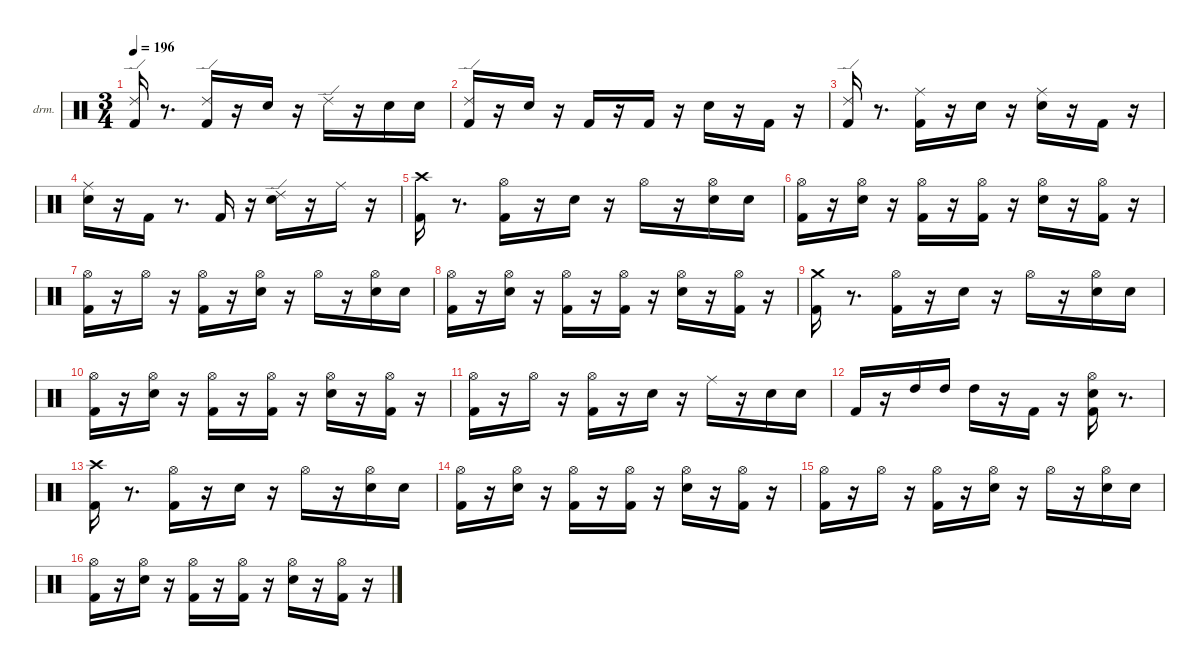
\hideDynamics
\bracketExtendMode nobrackets
\firstSystemTrackNameOrientation horizontal
\otherSystemsTrackNameOrientation horizontal
\track ("EZdrummer 3" "drm.") {instrument percussion}
\staff {score}
\articulation defaults
\ts (3 4)
\tempo 196
\clef neutral
\ks aminor
("Kick (hit) 2" "Ride (edge) 2").16{dy fff beam Up} r.8{d beam Up} ("Kick (hit) 2" "Ride (edge) 2").16{dy f beam Up} r.16{beam Up} "Snare (hit) 2".16{dy ff beam Down} r.16{beam Down} "Ride (edge) 2".16{dy f beam Down} r.16{beam Down} "Snare (hit) 2".16{beam Down} "Snare (hit) 2".16{dy mp beam Down} |
("Kick (hit) 2" "Ride (edge) 2").16{dy fff beam Up} r.16{beam Up} "Snare (hit) 2".16{dy ff beam Down} r.16{beam Down} "Kick (hit) 2".16{dy mf beam Up} r.16{beam Up} "Kick (hit) 2".16{dy fff beam Up} r.16{beam Up} "Snare (hit) 2".16{dy ff beam Down} r.16{beam Down} "Kick (hit) 2".16{dy mp beam Up} r.16{beam Up} |
("Kick (hit) 2" "Ride (edge) 2").16{dy fff beam Up} r.8{d beam Up} ("Kick (hit) 2" "Ride (middle)"{acc #}).16{dy f beam Down} r.16{beam Down} "Snare (hit) 2".16{dy ff beam Down} r.16{beam Down} ("Snare (hit) 2" "Ride (middle)"{acc #}).16{dy pp beam Down} r.16{beam Down} "Kick (hit) 2".16{dy ff beam Up} r.16{beam Up} |
("Snare (hit) 2" "Ride (middle)"{acc #}).16{beam Down} r.16{beam Down} "Kick (hit) 2".16{dy f beam Up} r.8{d beam Up} "Kick (hit) 2".16{dy ff beam Up} r.16{beam Up} ("Snare (hit) 2" "Ride (edge) 2").16{beam Down} r.16{beam Down} "Ride (middle)"{acc #}.16{dy ppp beam Down} r.16{beam Down} |
("Kick (hit) 2" "Crash high (hit)"{acc #}).16{dy fff beam Down} r.8{d beam Down} ("Kick (hit) 2" "Hi-Hat (open)"{acc #}).16{dy f beam Down} r.16{beam Down} "Snare (hit) 2".16{dy ff beam Down} r.16{beam Down} "Hi-Hat (open)"{acc #}.16{dy f beam Down} r.16{beam Down} ("Snare (hit) 2" "Hi-Hat (open)"{acc #}).16{beam Down} "Snare (hit) 2".16{dy mp beam Down} |
("Kick (hit) 2" "Hi-Hat (open)"{acc #}).16{dy fff beam Down} r.16{beam Down} ("Snare (hit) 2" "Hi-Hat (open)"{acc #}).16{dy ff beam Down} r.16{beam Down} ("Kick (hit) 2" "Hi-Hat (open)"{acc #}).16{dy mf beam Down} r.16{beam Down} ("Kick (hit) 2" "Hi-Hat (open)"{acc #}).16{dy fff beam Down} r.16{beam Down} ("Snare (hit) 2" "Hi-Hat (open)"{acc #}).16{dy ff beam Down} r.16{beam Down} ("Kick (hit) 2" "Hi-Hat (open)"{acc #}).16{dy mp beam Down} r.16{beam Down} |
("Kick (hit) 2" "Hi-Hat (open)"{acc #}).16{dy fff beam Down} r.16{beam Down} "Hi-Hat (open)"{acc #}.16{dy pp beam Down} r.16{beam Down} ("Kick (hit) 2" "Hi-Hat (open)"{acc #}).16{dy f beam Down} r.16{beam Down} ("Snare (hit) 2" "Hi-Hat (open)"{acc #}).16{dy ff beam Down} r.16{beam Down} "Hi-Hat (open)"{acc #}.16{dy f beam Down} r.16{beam Down} ("Snare (hit) 2" "Hi-Hat (open)"{acc #}).16{beam Down} "Snare (hit) 2".16{dy mp beam Down} |
("Kick (hit) 2" "Hi-Hat (open)"{acc #}).16{dy fff beam Down} r.16{beam Down} ("Snare (hit) 2" "Hi-Hat (open)"{acc #}).16{dy ff beam Down} r.16{beam Down} ("Kick (hit) 2" "Hi-Hat (open)"{acc #}).16{dy mf beam Down} r.16{beam Down} ("Kick (hit) 2" "Hi-Hat (open)"{acc #}).16{dy fff beam Down} r.16{beam Down} ("Snare (hit) 2" "Hi-Hat (open)"{acc #}).16{dy ff beam Down} r.16{beam Down} ("Kick (hit) 2" "Hi-Hat (open)"{acc #}).16{dy mp beam Down} r.16{beam Down} |
("Kick (hit) 2" "Crash medium (hit)").16{dy fff beam Down} r.8{d beam Down} ("Kick (hit) 2" "Hi-Hat (open)"{acc #}).16{dy f beam Down} r.16{beam Down} "Snare (hit) 2".16{dy ff beam Down} r.16{beam Down} "Hi-Hat (open)"{acc #}.16{dy f beam Down} r.16{beam Down} ("Snare (hit) 2" "Hi-Hat (open)"{acc #}).16{beam Down} "Snare (hit) 2".16{dy mp beam Down} |
("Kick (hit) 2" "Hi-Hat (open)"{acc #}).16{dy fff beam Down} r.16{beam Down} ("Snare (hit) 2" "Hi-Hat (open)"{acc #}).16{dy ff beam Down} r.16{beam Down} ("Kick (hit) 2" "Hi-Hat (open)"{acc #}).16{dy mf beam Down} r.16{beam Down} ("Kick (hit) 2" "Hi-Hat (open)"{acc #}).16{dy fff beam Down} r.16{beam Down} ("Snare (hit) 2" "Hi-Hat (open)"{acc #}).16{dy ff beam Down} r.16{beam Down} ("Kick (hit) 2" "Hi-Hat (open)"{acc #}).16{dy mp beam Down} r.16{beam Down} |
("Kick (hit) 2" "Hi-Hat (open)"{acc #}).16{dy fff beam Down} r.16{beam Down} "Hi-Hat (open)"{acc #}.16{dy pp beam Down} r.16{beam Down} ("Kick (hit) 2" "Hi-Hat (open)"{acc #}).16{dy f beam Down} r.16{beam Down} "Snare (hit) 2".16{dy ff beam Down} r.16{beam Down} "Ride (middle)"{acc #}.16{beam Down} r.16{beam Down} "Snare (hit) 2".16{dy f beam Down} "Snare (hit) 2".16{dy mp beam Down} |
"Kick (hit) 2".16{dy fff beam Up} r.16{beam Up} "High Tom (hit)".16{dy ff beam Down} "High Tom (hit)".16{dy mf beam Down} "High Tom (hit)".16{dy fff beam Down} r.16{beam Down} "Kick (hit) 2".16{dy f beam Up} r.16{beam Up} ("Kick (hit) 2" "Snare (hit) 2" "Hi-Hat (open)"{acc #}).16{dy fff beam Down} r.8{d beam Down} |
("Kick (hit) 2" "Crash high (hit)"{acc #}).16{beam Down} r.8{d beam Down} ("Kick (hit) 2" "Hi-Hat (open)"{acc #}).16{dy f beam Down} r.16{beam Down} "Snare (hit) 2".16{dy ff beam Down} r.16{beam Down} "Hi-Hat (open)"{acc #}.16{dy f beam Down} r.16{beam Down} ("Snare (hit) 2" "Hi-Hat (open)"{acc #}).16{beam Down} "Snare (hit) 2".16{dy mp beam Down} |
("Kick (hit) 2" "Hi-Hat (open)"{acc #}).16{dy fff beam Down} r.16{beam Down} ("Snare (hit) 2" "Hi-Hat (open)"{acc #}).16{dy ff beam Down} r.16{beam Down} ("Kick (hit) 2" "Hi-Hat (open)"{acc #}).16{dy mf beam Down} r.16{beam Down} ("Kick (hit) 2" "Hi-Hat (open)"{acc #}).16{dy fff beam Down} r.16{beam Down} ("Snare (hit) 2" "Hi-Hat (open)"{acc #}).16{dy ff beam Down} r.16{beam Down} ("Kick (hit) 2" "Hi-Hat (open)"{acc #}).16{dy mp beam Down} r.16{beam Down} |
("Kick (hit) 2" "Hi-Hat (open)"{acc #}).16{dy fff beam Down} r.16{beam Down} "Hi-Hat (open)"{acc #}.16{dy pp beam Down} r.16{beam Down} ("Kick (hit) 2" "Hi-Hat (open)"{acc #}).16{dy f beam Down} r.16{beam Down} ("Snare (hit) 2" "Hi-Hat (open)"{acc #}).16{dy ff beam Down} r.16{beam Down} "Hi-Hat (open)"{acc #}.16{dy f beam Down} r.16{beam Down} ("Snare (hit) 2" "Hi-Hat (open)"{acc #}).16{beam Down} "Snare (hit) 2".16{dy mp beam Down} |
("Kick (hit) 2" "Hi-Hat (open)"{acc #}).16{dy fff beam Down} r.16{beam Down} ("Snare (hit) 2" "Hi-Hat (open)"{acc #}).16{dy ff beam Down} r.16{beam Down} ("Kick (hit) 2" "Hi-Hat (open)"{acc #}).16{dy mf beam Down} r.16{beam Down} ("Kick (hit) 2" "Hi-Hat (open)"{acc #}).16{dy fff beam Down} r.16{beam Down} ("Snare (hit) 2" "Hi-Hat (open)"{acc #}).16{dy ff beam Down} r.16{beam Down} ("Kick (hit) 2" "Hi-Hat (open)"{acc #}).16{dy mp beam Down} r.16{beam Down}
